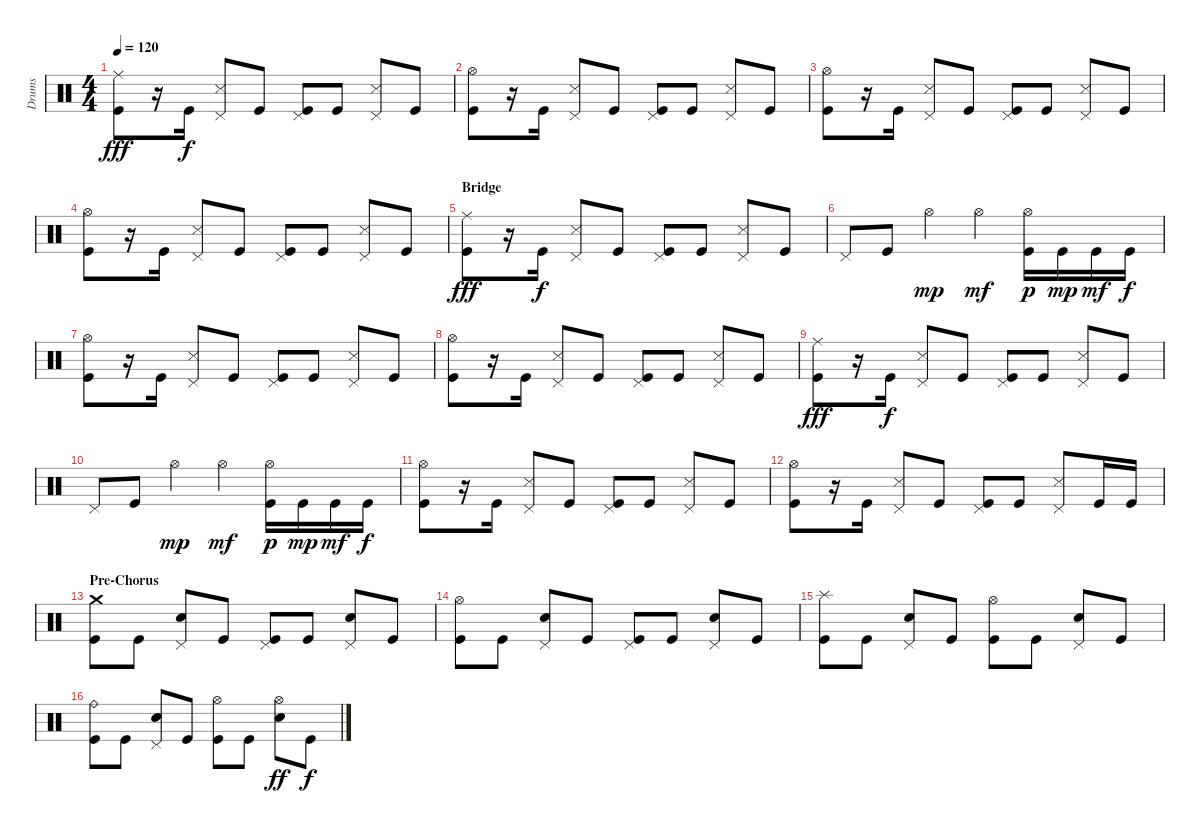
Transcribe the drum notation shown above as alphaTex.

\track ("Drums" "Drums") {instrument percussion}
\staff {score}
\articulation defaults
\ts (4 4)
\tempo 120
\clef neutral
\ks c
("Ride (middle)" "Kick (hit)").8{dy fff} r.16 "Kick (hit)".16{dy f} ("Pedal Hi-Hat (hit)" "Snare (side stick) 3").8 "Kick (hit)".8 ("Pedal Hi-Hat (hit)" "Kick (hit)").8 "Kick (hit)".8 ("Pedal Hi-Hat (hit)" "Snare (side stick) 3").8 "Kick (hit)".8 |
("Hi-Hat (open)" "Kick (hit)").8 r.16 "Kick (hit)".16 ("Pedal Hi-Hat (hit)" "Snare (side stick) 3").8 "Kick (hit)".8 ("Pedal Hi-Hat (hit)" "Kick (hit)").8 "Kick (hit)".8 ("Pedal Hi-Hat (hit)" "Snare (side stick) 3").8 "Kick (hit)".8 |
("Hi-Hat (open)" "Kick (hit)").8 r.16 "Kick (hit)".16 ("Pedal Hi-Hat (hit)" "Snare (side stick) 3").8 "Kick (hit)".8 ("Pedal Hi-Hat (hit)" "Kick (hit)").8 "Kick (hit)".8 ("Pedal Hi-Hat (hit)" "Snare (side stick) 3").8 "Kick (hit)".8 |
("Hi-Hat (open)" "Kick (hit)").8 r.16 "Kick (hit)".16 ("Pedal Hi-Hat (hit)" "Snare (side stick) 3").8 "Kick (hit)".8 ("Pedal Hi-Hat (hit)" "Kick (hit)").8 "Kick (hit)".8 ("Pedal Hi-Hat (hit)" "Snare (side stick) 3").8 "Kick (hit)".8 |
\section ("" "Bridge")
("Ride (middle)" "Kick (hit)").8{dy fff} r.16 "Kick (hit)".16{dy f} ("Pedal Hi-Hat (hit)" "Snare (side stick) 3").8 "Kick (hit)".8 ("Pedal Hi-Hat (hit)" "Kick (hit)").8 "Kick (hit)".8 ("Pedal Hi-Hat (hit)" "Snare (side stick) 3").8 "Kick (hit)".8 |
"Pedal Hi-Hat (hit)".8 "Kick (hit)".8 "Hi-Hat (open)".4{dy mp} "Hi-Hat (open)".4{dy mf} ("Hi-Hat (open)" "Kick (hit)").16{dy p} "Kick (hit)".16{dy mp} "Kick (hit)".16{dy mf} "Kick (hit)".16{dy f} |
("Hi-Hat (open)" "Kick (hit)").8 r.16 "Kick (hit)".16 ("Pedal Hi-Hat (hit)" "Snare (side stick) 3").8 "Kick (hit)".8 ("Pedal Hi-Hat (hit)" "Kick (hit)").8 "Kick (hit)".8 ("Pedal Hi-Hat (hit)" "Snare (side stick) 3").8 "Kick (hit)".8 |
("Hi-Hat (open)" "Kick (hit)").8 r.16 "Kick (hit)".16 ("Pedal Hi-Hat (hit)" "Snare (side stick) 3").8 "Kick (hit)".8 ("Pedal Hi-Hat (hit)" "Kick (hit)").8 "Kick (hit)".8 ("Pedal Hi-Hat (hit)" "Snare (side stick) 3").8 "Kick (hit)".8 |
("Ride (middle)" "Kick (hit)").8{dy fff} r.16 "Kick (hit)".16{dy f} ("Pedal Hi-Hat (hit)" "Snare (side stick) 3").8 "Kick (hit)".8 ("Pedal Hi-Hat (hit)" "Kick (hit)").8 "Kick (hit)".8 ("Pedal Hi-Hat (hit)" "Snare (side stick) 3").8 "Kick (hit)".8 |
"Pedal Hi-Hat (hit)".8 "Kick (hit)".8 "Hi-Hat (open)".4{dy mp} "Hi-Hat (open)".4{dy mf} ("Hi-Hat (open)" "Kick (hit)").16{dy p} "Kick (hit)".16{dy mp} "Kick (hit)".16{dy mf} "Kick (hit)".16{dy f} |
("Hi-Hat (open)" "Kick (hit)").8 r.16 "Kick (hit)".16 ("Pedal Hi-Hat (hit)" "Snare (side stick) 3").8 "Kick (hit)".8 ("Pedal Hi-Hat (hit)" "Kick (hit)").8 "Kick (hit)".8 ("Pedal Hi-Hat (hit)" "Snare (side stick) 3").8 "Kick (hit)".8 |
("Hi-Hat (open)" "Kick (hit)").8 r.16 "Kick (hit)".16 ("Pedal Hi-Hat (hit)" "Snare (side stick) 3").8 "Kick (hit)".8 ("Pedal Hi-Hat (hit)" "Kick (hit)").8 "Kick (hit)".8 ("Pedal Hi-Hat (hit)" "Snare (side stick) 3").8 "Kick (hit)".16 "Kick (hit)".16 |
\section ("" "Pre-Chorus")
("Crash medium (hit)" "Kick (hit)").8 "Kick (hit)".8 ("Pedal Hi-Hat (hit)" "Snare (hit) 2").8 "Kick (hit)".8 ("Pedal Hi-Hat (hit)" "Kick (hit)").8 "Kick (hit)".8 ("Pedal Hi-Hat (hit)" "Snare (hit) 2").8 "Kick (hit)".8 |
("Hi-Hat (open)" "Kick (hit)").8 "Kick (hit)".8 ("Pedal Hi-Hat (hit)" "Snare (hit) 2").8 "Kick (hit)".8 ("Pedal Hi-Hat (hit)" "Kick (hit)").8 "Kick (hit)".8 ("Pedal Hi-Hat (hit)" "Snare (hit) 2").8 "Kick (hit)".8 |
("Splash (hit)" "Kick (hit)").8 "Kick (hit)".8 ("Pedal Hi-Hat (hit)" "Snare (hit) 2").8 "Kick (hit)".8 ("Hi-Hat (open)" "Kick (hit)").8 "Kick (hit)".8 ("Pedal Hi-Hat (hit)" "Snare (hit) 2").8 "Kick (hit)".8 |
("Ride (bell)" "Kick (hit)").8 "Kick (hit)".8 ("Pedal Hi-Hat (hit)" "Snare (hit) 2").8 "Kick (hit)".8 ("Hi-Hat (open)" "Kick (hit)").8 "Kick (hit)".8 ("Hi-Hat (open)" "Snare (hit) 2").8{dy ff} "Kick (hit)".8{dy f}
